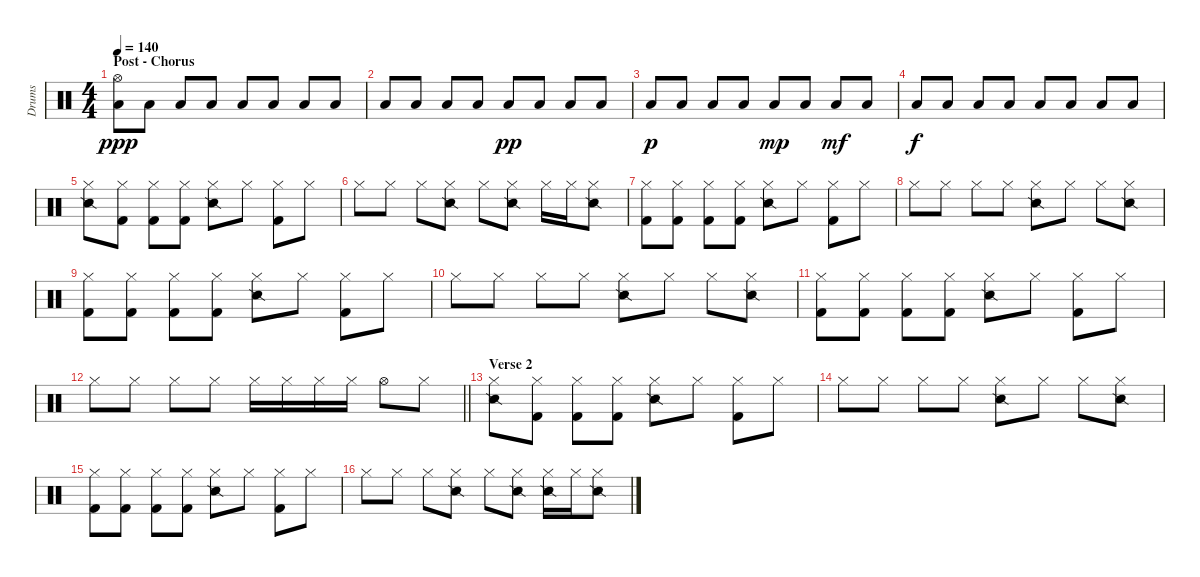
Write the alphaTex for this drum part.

\track ("Drums" "Drums") {instrument percussion}
\staff {score}
\articulation defaults
\ts (4 4)
\section ("" "Post - Chorus")
\tempo 140
\clef neutral
\ks c
("Hi-Hat (open)" "Low Floor Tom (hit)").8{dy ppp} "Low Floor Tom (hit)".8 "Low Floor Tom (hit)".8 "Low Floor Tom (hit)".8 "Low Floor Tom (hit)".8 "Low Floor Tom (hit)".8 "Low Floor Tom (hit)".8 "Low Floor Tom (hit)".8 |
"Low Floor Tom (hit)".8 "Low Floor Tom (hit)".8 "Low Floor Tom (hit)".8 "Low Floor Tom (hit)".8 "Low Floor Tom (hit)".8{dy pp} "Low Floor Tom (hit)".8 "Low Floor Tom (hit)".8 "Low Floor Tom (hit)".8 |
"Low Floor Tom (hit)".8{dy p} "Low Floor Tom (hit)".8 "Low Floor Tom (hit)".8 "Low Floor Tom (hit)".8 "Low Floor Tom (hit)".8{dy mp} "Low Floor Tom (hit)".8 "Low Floor Tom (hit)".8{dy mf} "Low Floor Tom (hit)".8 |
"Low Floor Tom (hit)".8{dy f} "Low Floor Tom (hit)".8 "Low Floor Tom (hit)".8 "Low Floor Tom (hit)".8 "Low Floor Tom (hit)".8 "Low Floor Tom (hit)".8 "Low Floor Tom (hit)".8 "Low Floor Tom (hit)".8 |
("Hi-Hat (closed)" "Snare (side stick) 2").8 ("Hi-Hat (closed)" "Kick (hit) 2").8 ("Hi-Hat (closed)" "Kick (hit) 2").8 ("Hi-Hat (closed)" "Kick (hit) 2").8 ("Hi-Hat (closed)" "Snare (side stick) 2").8 "Hi-Hat (closed)".8 ("Hi-Hat (closed)" "Kick (hit) 2").8 "Hi-Hat (closed)".8 |
"Hi-Hat (closed)".8 "Hi-Hat (closed)".8 "Hi-Hat (closed)".8 ("Hi-Hat (closed)" "Snare (side stick) 2").8 "Hi-Hat (closed)".8 ("Hi-Hat (closed)" "Snare (side stick) 2").8 "Hi-Hat (closed)".16 "Hi-Hat (closed)".16 ("Hi-Hat (closed)" "Snare (side stick) 2").8 |
("Hi-Hat (closed)" "Kick (hit) 2").8 ("Hi-Hat (closed)" "Kick (hit) 2").8 ("Hi-Hat (closed)" "Kick (hit) 2").8 ("Hi-Hat (closed)" "Kick (hit) 2").8 ("Hi-Hat (closed)" "Snare (side stick) 2").8 "Hi-Hat (closed)".8 ("Hi-Hat (closed)" "Kick (hit) 2").8 "Hi-Hat (closed)".8 |
"Hi-Hat (closed)".8 "Hi-Hat (closed)".8 "Hi-Hat (closed)".8 "Hi-Hat (closed)".8 ("Hi-Hat (closed)" "Snare (side stick) 2").8 "Hi-Hat (closed)".8 "Hi-Hat (closed)".8 ("Hi-Hat (closed)" "Snare (side stick) 2").8 |
("Hi-Hat (closed)" "Kick (hit) 2").8 ("Hi-Hat (closed)" "Kick (hit) 2").8 ("Hi-Hat (closed)" "Kick (hit) 2").8 ("Hi-Hat (closed)" "Kick (hit) 2").8 ("Hi-Hat (closed)" "Snare (side stick) 2").8 "Hi-Hat (closed)".8 ("Hi-Hat (closed)" "Kick (hit) 2").8 "Hi-Hat (closed)".8 |
"Hi-Hat (closed)".8 "Hi-Hat (closed)".8 "Hi-Hat (closed)".8 "Hi-Hat (closed)".8 ("Hi-Hat (closed)" "Snare (side stick) 2").8 "Hi-Hat (closed)".8 "Hi-Hat (closed)".8 ("Hi-Hat (closed)" "Snare (side stick) 2").8 |
("Hi-Hat (closed)" "Kick (hit) 2").8 ("Hi-Hat (closed)" "Kick (hit) 2").8 ("Hi-Hat (closed)" "Kick (hit) 2").8 ("Hi-Hat (closed)" "Kick (hit) 2").8 ("Hi-Hat (closed)" "Snare (side stick) 2").8 "Hi-Hat (closed)".8 ("Hi-Hat (closed)" "Kick (hit) 2").8 "Hi-Hat (closed)".8 |
\barLineRight lightlight "Hi-Hat (closed)".8 "Hi-Hat (closed)".8 "Hi-Hat (closed)".8 "Hi-Hat (closed)".8 "Hi-Hat (closed)".16 "Hi-Hat (closed)".16 "Hi-Hat (closed)".16 "Hi-Hat (closed)".16 "Hi-Hat (open)".8 "Hi-Hat (closed)".8
|
\section ("" "Verse 2")
("Hi-Hat (closed)" "Snare (side stick) 2").8 ("Hi-Hat (closed)" "Kick (hit) 2").8 ("Hi-Hat (closed)" "Kick (hit) 2").8 ("Hi-Hat (closed)" "Kick (hit) 2").8 ("Hi-Hat (closed)" "Snare (side stick) 2").8 "Hi-Hat (closed)".8 ("Hi-Hat (closed)" "Kick (hit) 2").8 "Hi-Hat (closed)".8 |
"Hi-Hat (closed)".8 "Hi-Hat (closed)".8 "Hi-Hat (closed)".8 "Hi-Hat (closed)".8 ("Hi-Hat (closed)" "Snare (side stick) 2").8 "Hi-Hat (closed)".8 "Hi-Hat (closed)".8 ("Hi-Hat (closed)" "Snare (side stick) 2").8 |
("Hi-Hat (closed)" "Kick (hit) 2").8 ("Hi-Hat (closed)" "Kick (hit) 2").8 ("Hi-Hat (closed)" "Kick (hit) 2").8 ("Hi-Hat (closed)" "Kick (hit) 2").8 ("Hi-Hat (closed)" "Snare (side stick) 2").8 "Hi-Hat (closed)".8 ("Hi-Hat (closed)" "Kick (hit) 2").8 "Hi-Hat (closed)".8 |
"Hi-Hat (closed)".8 "Hi-Hat (closed)".8 "Hi-Hat (closed)".8 ("Hi-Hat (closed)" "Snare (side stick) 2").8 "Hi-Hat (closed)".8 ("Hi-Hat (closed)" "Snare (side stick) 2").8 ("Hi-Hat (closed)" "Snare (side stick) 2").16 "Hi-Hat (closed)".16 ("Hi-Hat (closed)" "Snare (side stick) 2").8
